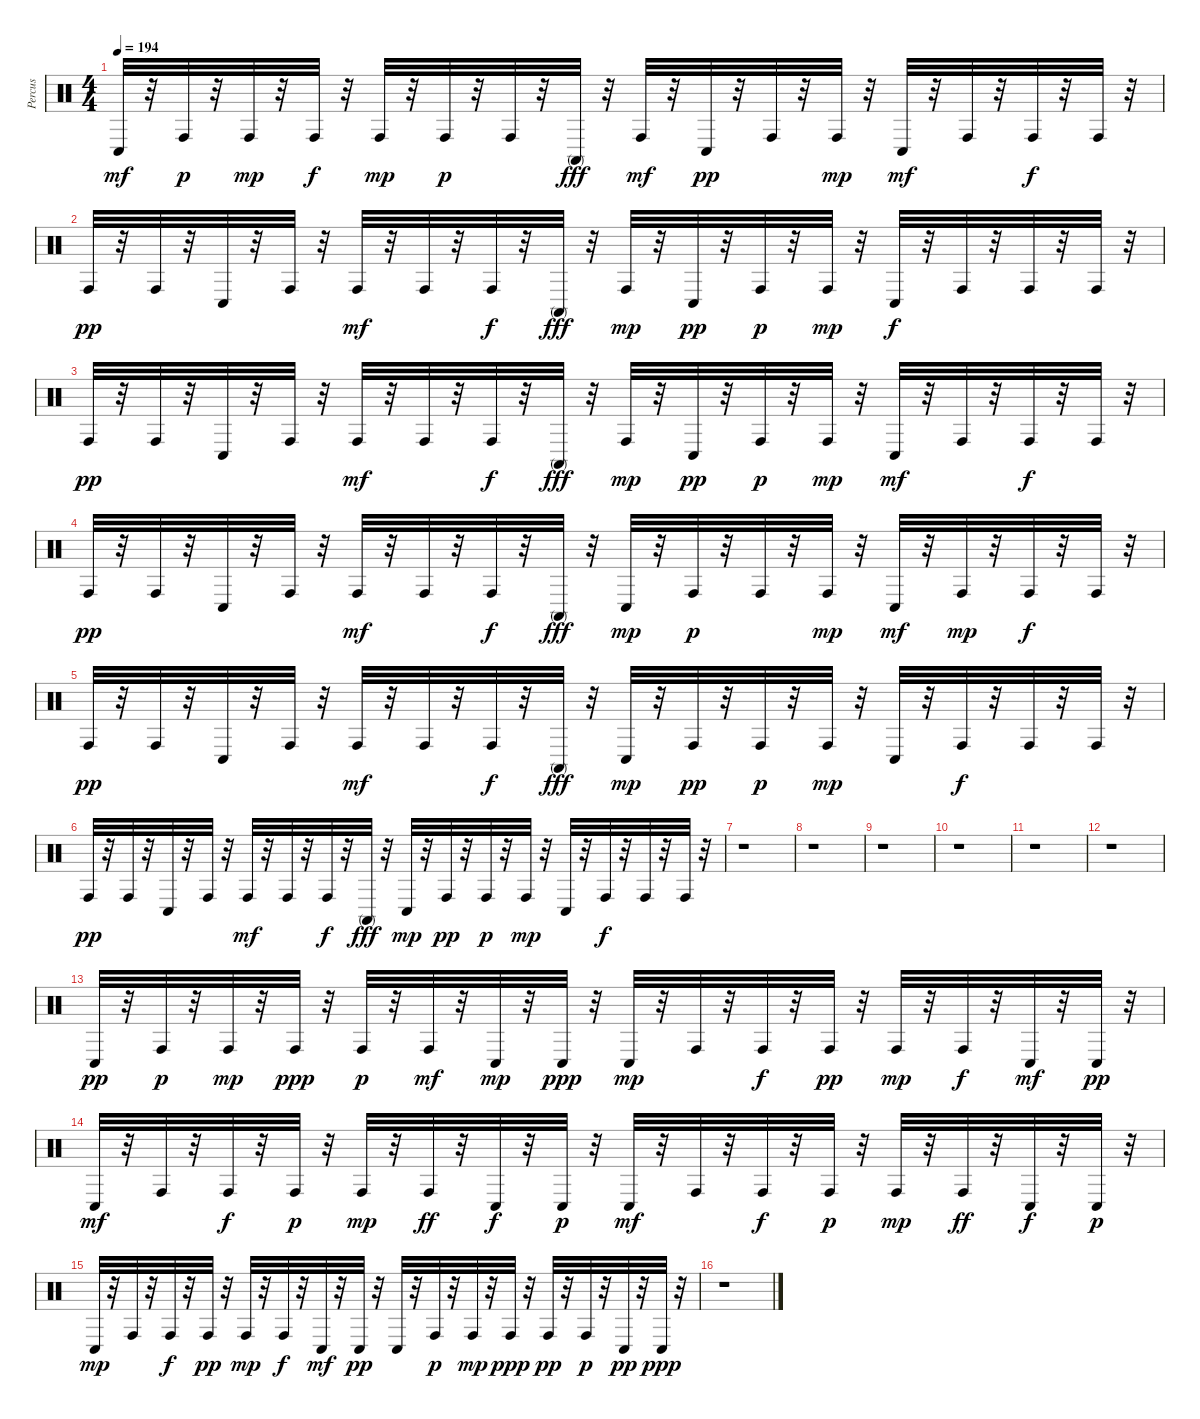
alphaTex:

\track ("Percus" "Percus") {instrument percussion}
\staff {score}
\articulation defaults
\ts (4 4)
\tempo 194
\clef neutral
\ks c "Conga low (hit)".32{dy mf}
r.32 "Conga high (hit)".32{dy p} r.32 "Conga high (hit)".32{dy mp} r.32 "Conga high (hit)".32{dy f} r.32 "Conga high (hit)".32{dy mp} r.32 "Conga high (hit)".32{dy p} r.32 "Conga high (hit)".32 r.32 "Conga high (mute)".32{dy fff} r.32 "Conga high (hit)".32{dy mf} r.32 "Conga low (hit)".32{dy pp} r.32 "Conga high (hit)".32 r.32 "Conga high (hit)".32{dy mp} r.32 "Conga low (hit)".32{dy mf} r.32 "Conga high (hit)".32 r.32 "Conga high (hit)".32{dy f} r.32 "Conga high (hit)".32 r.32 |
"Conga high (hit)".32{dy pp} r.32 "Conga high (hit)".32 r.32 "Conga low (hit)".32 r.32 "Conga high (hit)".32 r.32 "Conga high (hit)".32{dy mf} r.32 "Conga high (hit)".32 r.32 "Conga high (hit)".32{dy f} r.32 "Conga high (mute)".32{dy fff} r.32 "Conga high (hit)".32{dy mp} r.32 "Conga low (hit)".32{dy pp} r.32 "Conga high (hit)".32{dy p} r.32 "Conga high (hit)".32{dy mp} r.32 "Conga low (hit)".32{dy f} r.32 "Conga high (hit)".32 r.32 "Conga high (hit)".32 r.32 "Conga high (hit)".32 r.32 |
"Conga high (hit)".32{dy pp} r.32 "Conga high (hit)".32 r.32 "Conga low (hit)".32 r.32 "Conga high (hit)".32 r.32 "Conga high (hit)".32{dy mf} r.32 "Conga high (hit)".32 r.32 "Conga high (hit)".32{dy f} r.32 "Conga high (mute)".32{dy fff} r.32 "Conga high (hit)".32{dy mp} r.32 "Conga low (hit)".32{dy pp} r.32 "Conga high (hit)".32{dy p} r.32 "Conga high (hit)".32{dy mp} r.32 "Conga low (hit)".32{dy mf} r.32 "Conga high (hit)".32 r.32 "Conga high (hit)".32{dy f} r.32 "Conga high (hit)".32 r.32 |
"Conga high (hit)".32{dy pp} r.32 "Conga high (hit)".32 r.32 "Conga low (hit)".32 r.32 "Conga high (hit)".32 r.32 "Conga high (hit)".32{dy mf} r.32 "Conga high (hit)".32 r.32 "Conga high (hit)".32{dy f} r.32 "Conga high (mute)".32{dy fff} r.32 "Conga low (hit)".32{dy mp} r.32 "Conga high (hit)".32{dy p} r.32 "Conga high (hit)".32 r.32 "Conga high (hit)".32{dy mp} r.32 "Conga low (hit)".32{dy mf} r.32 "Conga high (hit)".32{dy mp} r.32 "Conga high (hit)".32{dy f} r.32 "Conga high (hit)".32 r.32 |
"Conga high (hit)".32{dy pp} r.32 "Conga high (hit)".32 r.32 "Conga low (hit)".32 r.32 "Conga high (hit)".32 r.32 "Conga high (hit)".32{dy mf} r.32 "Conga high (hit)".32 r.32 "Conga high (hit)".32{dy f} r.32 "Conga high (mute)".32{dy fff} r.32 "Conga low (hit)".32{dy mp} r.32 "Conga high (hit)".32{dy pp} r.32 "Conga high (hit)".32{dy p} r.32 "Conga high (hit)".32{dy mp} r.32 "Conga low (hit)".32 r.32 "Conga high (hit)".32{dy f} r.32 "Conga high (hit)".32 r.32 "Conga high (hit)".32 r.32 |
"Conga high (hit)".32{dy pp} r.32 "Conga high (hit)".32 r.32 "Conga low (hit)".32 r.32 "Conga high (hit)".32 r.32 "Conga high (hit)".32{dy mf} r.32 "Conga high (hit)".32 r.32 "Conga high (hit)".32{dy f} r.32 "Conga high (mute)".32{dy fff} r.32 "Conga low (hit)".32{dy mp} r.32 "Conga high (hit)".32{dy pp} r.32 "Conga high (hit)".32{dy p} r.32 "Conga high (hit)".32{dy mp} r.32 "Conga low (hit)".32 r.32 "Conga high (hit)".32{dy f} r.32 "Conga high (hit)".32 r.32 "Conga high (hit)".32 r.32 |
r.1 |
r.1 |
r.1 |
r.1 |
r.1 |
r.1 |
"Conga low (hit)".32{dy pp} r.32 "Conga high (hit)".32{dy p} r.32 "Conga high (hit)".32{dy mp} r.32 "Conga high (hit)".32{dy ppp} r.32 "Conga high (hit)".32{dy p} r.32 "Conga high (hit)".32{dy mf} r.32 "Conga low (hit)".32{dy mp} r.32 "Conga low (hit)".32{dy ppp} r.32 "Conga low (hit)".32{dy mp} r.32 "Conga high (hit)".32 r.32 "Conga high (hit)".32{dy f} r.32 "Conga high (hit)".32{dy pp} r.32 "Conga high (hit)".32{dy mp} r.32 "Conga high (hit)".32{dy f} r.32 "Conga low (hit)".32{dy mf} r.32 "Conga low (hit)".32{dy pp} r.32 |
"Conga low (hit)".32{dy mf} r.32 "Conga high (hit)".32 r.32 "Conga high (hit)".32{dy f} r.32 "Conga high (hit)".32{dy p} r.32 "Conga high (hit)".32{dy mp} r.32 "Conga high (hit)".32{dy ff} r.32 "Conga low (hit)".32{dy f} r.32 "Conga low (hit)".32{dy p} r.32 "Conga low (hit)".32{dy mf} r.32 "Conga high (hit)".32 r.32 "Conga high (hit)".32{dy f} r.32 "Conga high (hit)".32{dy p} r.32 "Conga high (hit)".32{dy mp} r.32 "Conga high (hit)".32{dy ff} r.32 "Conga low (hit)".32{dy f} r.32 "Conga low (hit)".32{dy p} r.32 |
"Conga low (hit)".32{dy mp} r.32 "Conga high (hit)".32 r.32 "Conga high (hit)".32{dy f} r.32 "Conga high (hit)".32{dy pp} r.32 "Conga high (hit)".32{dy mp} r.32 "Conga high (hit)".32{dy f} r.32 "Conga low (hit)".32{dy mf} r.32 "Conga low (hit)".32{dy pp} r.32 "Conga low (hit)".32 r.32 "Conga high (hit)".32{dy p} r.32 "Conga high (hit)".32{dy mp} r.32 "Conga high (hit)".32{dy ppp} r.32 "Conga high (hit)".32{dy pp} r.32 "Conga high (hit)".32{dy p} r.32 "Conga low (hit)".32{dy pp} r.32 "Conga low (hit)".32{dy ppp} r.32 |
r.1
